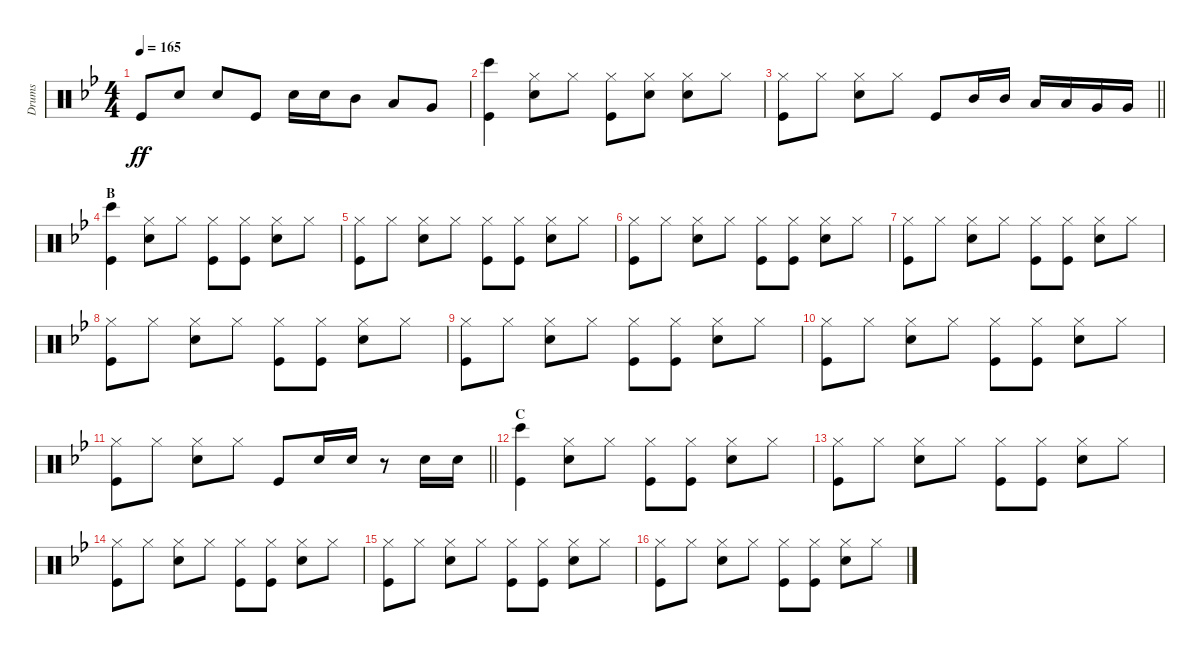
\track ("Drums" "Drums") {instrument percussion}
\staff {score}
\articulation defaults
\ts (4 4)
\tempo 165
\clef neutral
\ks bb "Kick (hit)".8{dy ff} "Snare (hit) 2".8 "Snare (hit) 2".8 "Kick (hit)".8 "Snare (hit) 2".16 "Snare (hit) 2".16 "Mid Tom (hit)".8 "Low Tom (hit)".8 "Very Low Tom (hit)".8
|
("Kick (hit)" "Bongo High (hit)").4 ("Hi-Hat (closed)" "Snare (hit) 2").8 "Hi-Hat (closed)".8 ("Hi-Hat (closed)" "Kick (hit)").8 ("Hi-Hat (closed)" "Snare (hit) 2").8 ("Hi-Hat (closed)" "Snare (hit) 2").8 "Hi-Hat (closed)".8 |
\barLineRight lightlight
("Hi-Hat (closed)" "Kick (hit)").8 "Hi-Hat (closed)".8 ("Hi-Hat (closed)" "Snare (hit) 2").8 "Hi-Hat (closed)".8 "Kick (hit)".8 "Mid Tom (hit)".16 "Mid Tom (hit)".16 "Low Tom (hit)".16 "Low Tom (hit)".16 "Very Low Tom (hit)".16 "Very Low Tom (hit)".16 |
\section ("" "B")
("Kick (hit)" "Bongo High (hit)").4 ("Hi-Hat (closed)" "Snare (hit) 2").8 "Hi-Hat (closed)".8 ("Hi-Hat (closed)" "Kick (hit)").8 ("Hi-Hat (closed)" "Kick (hit)").8 ("Hi-Hat (closed)" "Snare (hit) 2").8 "Hi-Hat (closed)".8 |
("Hi-Hat (closed)" "Kick (hit)").8 "Hi-Hat (closed)".8 ("Hi-Hat (closed)" "Snare (hit) 2").8 "Hi-Hat (closed)".8 ("Hi-Hat (closed)" "Kick (hit)").8 ("Hi-Hat (closed)" "Kick (hit)").8 ("Hi-Hat (closed)" "Snare (hit) 2").8 "Hi-Hat (closed)".8 |
("Hi-Hat (closed)" "Kick (hit)").8 "Hi-Hat (closed)".8 ("Hi-Hat (closed)" "Snare (hit) 2").8 "Hi-Hat (closed)".8 ("Hi-Hat (closed)" "Kick (hit)").8 ("Hi-Hat (closed)" "Kick (hit)").8 ("Hi-Hat (closed)" "Snare (hit) 2").8 "Hi-Hat (closed)".8 |
("Hi-Hat (closed)" "Kick (hit)").8 "Hi-Hat (closed)".8 ("Hi-Hat (closed)" "Snare (hit) 2").8 "Hi-Hat (closed)".8 ("Hi-Hat (closed)" "Kick (hit)").8 ("Hi-Hat (closed)" "Kick (hit)").8 ("Hi-Hat (closed)" "Snare (hit) 2").8 "Hi-Hat (closed)".8 |
("Hi-Hat (closed)" "Kick (hit)").8 "Hi-Hat (closed)".8 ("Hi-Hat (closed)" "Snare (hit) 2").8 "Hi-Hat (closed)".8 ("Hi-Hat (closed)" "Kick (hit)").8 ("Hi-Hat (closed)" "Kick (hit)").8 ("Hi-Hat (closed)" "Snare (hit) 2").8 "Hi-Hat (closed)".8 |
("Hi-Hat (closed)" "Kick (hit)").8 "Hi-Hat (closed)".8 ("Hi-Hat (closed)" "Snare (hit) 2").8 "Hi-Hat (closed)".8 ("Hi-Hat (closed)" "Kick (hit)").8 ("Hi-Hat (closed)" "Kick (hit)").8 ("Hi-Hat (closed)" "Snare (hit) 2").8 "Hi-Hat (closed)".8 |
("Hi-Hat (closed)" "Kick (hit)").8 "Hi-Hat (closed)".8 ("Hi-Hat (closed)" "Snare (hit) 2").8 "Hi-Hat (closed)".8 ("Hi-Hat (closed)" "Kick (hit)").8 ("Hi-Hat (closed)" "Kick (hit)").8 ("Hi-Hat (closed)" "Snare (hit) 2").8 "Hi-Hat (closed)".8 |
\barLineRight lightlight
("Hi-Hat (closed)" "Kick (hit)").8 "Hi-Hat (closed)".8 ("Hi-Hat (closed)" "Snare (hit) 2").8 "Hi-Hat (closed)".8 "Kick (hit)".8 "Snare (hit) 2".16 "Snare (hit) 2".16 r.8 "Snare (hit) 2".16 "Snare (hit) 2".16 |
\section ("" "C")
("Kick (hit)" "Bongo High (hit)").4 ("Hi-Hat (closed)" "Snare (hit) 2").8 "Hi-Hat (closed)".8 ("Hi-Hat (closed)" "Kick (hit)").8 ("Hi-Hat (closed)" "Kick (hit)").8 ("Hi-Hat (closed)" "Snare (hit) 2").8 "Hi-Hat (closed)".8 |
("Hi-Hat (closed)" "Kick (hit)").8 "Hi-Hat (closed)".8 ("Hi-Hat (closed)" "Snare (hit) 2").8 "Hi-Hat (closed)".8 ("Hi-Hat (closed)" "Kick (hit)").8 ("Hi-Hat (closed)" "Kick (hit)").8 ("Hi-Hat (closed)" "Snare (hit) 2").8 "Hi-Hat (closed)".8 |
("Hi-Hat (closed)" "Kick (hit)").8 "Hi-Hat (closed)".8 ("Hi-Hat (closed)" "Snare (hit) 2").8 "Hi-Hat (closed)".8 ("Hi-Hat (closed)" "Kick (hit)").8 ("Hi-Hat (closed)" "Kick (hit)").8 ("Hi-Hat (closed)" "Snare (hit) 2").8 "Hi-Hat (closed)".8 |
("Hi-Hat (closed)" "Kick (hit)").8 "Hi-Hat (closed)".8 ("Hi-Hat (closed)" "Snare (hit) 2").8 "Hi-Hat (closed)".8 ("Hi-Hat (closed)" "Kick (hit)").8 ("Hi-Hat (closed)" "Kick (hit)").8 ("Hi-Hat (closed)" "Snare (hit) 2").8 "Hi-Hat (closed)".8 |
("Hi-Hat (closed)" "Kick (hit)").8 "Hi-Hat (closed)".8 ("Hi-Hat (closed)" "Snare (hit) 2").8 "Hi-Hat (closed)".8 ("Hi-Hat (closed)" "Kick (hit)").8 ("Hi-Hat (closed)" "Kick (hit)").8 ("Hi-Hat (closed)" "Snare (hit) 2").8 "Hi-Hat (closed)".8
